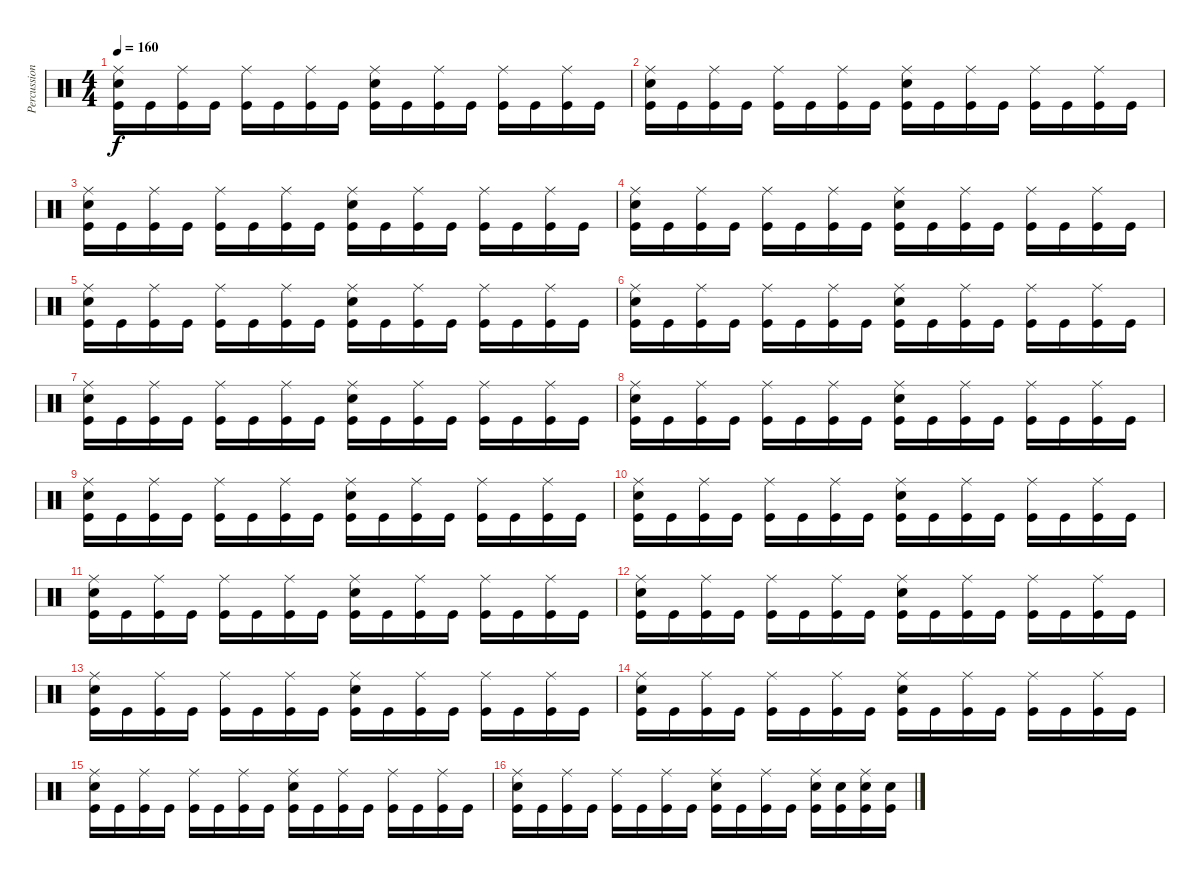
\track ("Percussions" "Percussion") {instrument percussion}
\staff {score}
\articulation defaults
\ts (4 4)
\tempo 160
\clef neutral
\ks c
("Ride (middle)" "Snare (hit) 2" "Kick (hit)").16{dy f} "Kick (hit)".16 ("Ride (middle)" "Kick (hit)").16 "Kick (hit)".16 ("Ride (middle)" "Kick (hit)").16 "Kick (hit)".16 ("Ride (middle)" "Kick (hit)").16 "Kick (hit)".16 ("Ride (middle)" "Snare (hit) 2" "Kick (hit)").16 "Kick (hit)".16 ("Ride (middle)" "Kick (hit)").16 "Kick (hit)".16 ("Ride (middle)" "Kick (hit)").16 "Kick (hit)".16 ("Ride (middle)" "Kick (hit)").16 "Kick (hit)".16 |
("Ride (middle)" "Snare (hit) 2" "Kick (hit)").16 "Kick (hit)".16 ("Ride (middle)" "Kick (hit)").16 "Kick (hit)".16 ("Ride (middle)" "Kick (hit)").16 "Kick (hit)".16 ("Ride (middle)" "Kick (hit)").16 "Kick (hit)".16 ("Ride (middle)" "Snare (hit) 2" "Kick (hit)").16 "Kick (hit)".16 ("Ride (middle)" "Kick (hit)").16 "Kick (hit)".16 ("Ride (middle)" "Kick (hit)").16 "Kick (hit)".16 ("Ride (middle)" "Kick (hit)").16 "Kick (hit)".16 |
("Ride (middle)" "Snare (hit) 2" "Kick (hit)").16 "Kick (hit)".16 ("Ride (middle)" "Kick (hit)").16 "Kick (hit)".16 ("Ride (middle)" "Kick (hit)").16 "Kick (hit)".16 ("Ride (middle)" "Kick (hit)").16 "Kick (hit)".16 ("Ride (middle)" "Snare (hit) 2" "Kick (hit)").16 "Kick (hit)".16 ("Ride (middle)" "Kick (hit)").16 "Kick (hit)".16 ("Ride (middle)" "Kick (hit)").16 "Kick (hit)".16 ("Ride (middle)" "Kick (hit)").16 "Kick (hit)".16 |
("Ride (middle)" "Snare (hit) 2" "Kick (hit)").16 "Kick (hit)".16 ("Ride (middle)" "Kick (hit)").16 "Kick (hit)".16 ("Ride (middle)" "Kick (hit)").16 "Kick (hit)".16 ("Ride (middle)" "Kick (hit)").16 "Kick (hit)".16 ("Ride (middle)" "Snare (hit) 2" "Kick (hit)").16 "Kick (hit)".16 ("Ride (middle)" "Kick (hit)").16 "Kick (hit)".16 ("Ride (middle)" "Kick (hit)").16 "Kick (hit)".16 ("Ride (middle)" "Kick (hit)").16 "Kick (hit)".16 |
("Ride (middle)" "Snare (hit) 2" "Kick (hit)").16 "Kick (hit)".16 ("Ride (middle)" "Kick (hit)").16 "Kick (hit)".16 ("Ride (middle)" "Kick (hit)").16 "Kick (hit)".16 ("Ride (middle)" "Kick (hit)").16 "Kick (hit)".16 ("Ride (middle)" "Snare (hit) 2" "Kick (hit)").16 "Kick (hit)".16 ("Ride (middle)" "Kick (hit)").16 "Kick (hit)".16 ("Ride (middle)" "Kick (hit)").16 "Kick (hit)".16 ("Ride (middle)" "Kick (hit)").16 "Kick (hit)".16 |
("Ride (middle)" "Snare (hit) 2" "Kick (hit)").16 "Kick (hit)".16 ("Ride (middle)" "Kick (hit)").16 "Kick (hit)".16 ("Ride (middle)" "Kick (hit)").16 "Kick (hit)".16 ("Ride (middle)" "Kick (hit)").16 "Kick (hit)".16 ("Ride (middle)" "Snare (hit) 2" "Kick (hit)").16 "Kick (hit)".16 ("Ride (middle)" "Kick (hit)").16 "Kick (hit)".16 ("Ride (middle)" "Kick (hit)").16 "Kick (hit)".16 ("Ride (middle)" "Kick (hit)").16 "Kick (hit)".16 |
("Ride (middle)" "Snare (hit) 2" "Kick (hit)").16 "Kick (hit)".16 ("Ride (middle)" "Kick (hit)").16 "Kick (hit)".16 ("Ride (middle)" "Kick (hit)").16 "Kick (hit)".16 ("Ride (middle)" "Kick (hit)").16 "Kick (hit)".16 ("Ride (middle)" "Snare (hit) 2" "Kick (hit)").16 "Kick (hit)".16 ("Ride (middle)" "Kick (hit)").16 "Kick (hit)".16 ("Ride (middle)" "Kick (hit)").16 "Kick (hit)".16 ("Ride (middle)" "Kick (hit)").16 "Kick (hit)".16 |
("Ride (middle)" "Snare (hit) 2" "Kick (hit)").16 "Kick (hit)".16 ("Ride (middle)" "Kick (hit)").16 "Kick (hit)".16 ("Ride (middle)" "Kick (hit)").16 "Kick (hit)".16 ("Ride (middle)" "Kick (hit)").16 "Kick (hit)".16 ("Ride (middle)" "Snare (hit) 2" "Kick (hit)").16 "Kick (hit)".16 ("Ride (middle)" "Kick (hit)").16 "Kick (hit)".16 ("Ride (middle)" "Kick (hit)").16 "Kick (hit)".16 ("Ride (middle)" "Kick (hit)").16 "Kick (hit)".16 |
("Ride (middle)" "Snare (hit) 2" "Kick (hit)").16 "Kick (hit)".16 ("Ride (middle)" "Kick (hit)").16 "Kick (hit)".16 ("Ride (middle)" "Kick (hit)").16 "Kick (hit)".16 ("Ride (middle)" "Kick (hit)").16 "Kick (hit)".16 ("Ride (middle)" "Snare (hit) 2" "Kick (hit)").16 "Kick (hit)".16 ("Ride (middle)" "Kick (hit)").16 "Kick (hit)".16 ("Ride (middle)" "Kick (hit)").16 "Kick (hit)".16 ("Ride (middle)" "Kick (hit)").16 "Kick (hit)".16 |
("Ride (middle)" "Snare (hit) 2" "Kick (hit)").16 "Kick (hit)".16 ("Ride (middle)" "Kick (hit)").16 "Kick (hit)".16 ("Ride (middle)" "Kick (hit)").16 "Kick (hit)".16 ("Ride (middle)" "Kick (hit)").16 "Kick (hit)".16 ("Ride (middle)" "Snare (hit) 2" "Kick (hit)").16 "Kick (hit)".16 ("Ride (middle)" "Kick (hit)").16 "Kick (hit)".16 ("Ride (middle)" "Kick (hit)").16 "Kick (hit)".16 ("Ride (middle)" "Kick (hit)").16 "Kick (hit)".16 |
("Ride (middle)" "Snare (hit) 2" "Kick (hit)").16 "Kick (hit)".16 ("Ride (middle)" "Kick (hit)").16 "Kick (hit)".16 ("Ride (middle)" "Kick (hit)").16 "Kick (hit)".16 ("Ride (middle)" "Kick (hit)").16 "Kick (hit)".16 ("Ride (middle)" "Snare (hit) 2" "Kick (hit)").16 "Kick (hit)".16 ("Ride (middle)" "Kick (hit)").16 "Kick (hit)".16 ("Ride (middle)" "Kick (hit)").16 "Kick (hit)".16 ("Ride (middle)" "Kick (hit)").16 "Kick (hit)".16 |
("Ride (middle)" "Snare (hit) 2" "Kick (hit)").16 "Kick (hit)".16 ("Ride (middle)" "Kick (hit)").16 "Kick (hit)".16 ("Ride (middle)" "Kick (hit)").16 "Kick (hit)".16 ("Ride (middle)" "Kick (hit)").16 "Kick (hit)".16 ("Ride (middle)" "Snare (hit) 2" "Kick (hit)").16 "Kick (hit)".16 ("Ride (middle)" "Kick (hit)").16 "Kick (hit)".16 ("Ride (middle)" "Kick (hit)").16 "Kick (hit)".16 ("Ride (middle)" "Kick (hit)").16 "Kick (hit)".16 |
("Ride (middle)" "Snare (hit) 2" "Kick (hit)").16 "Kick (hit)".16 ("Ride (middle)" "Kick (hit)").16 "Kick (hit)".16 ("Ride (middle)" "Kick (hit)").16 "Kick (hit)".16 ("Ride (middle)" "Kick (hit)").16 "Kick (hit)".16 ("Ride (middle)" "Snare (hit) 2" "Kick (hit)").16 "Kick (hit)".16 ("Ride (middle)" "Kick (hit)").16 "Kick (hit)".16 ("Ride (middle)" "Kick (hit)").16 "Kick (hit)".16 ("Ride (middle)" "Kick (hit)").16 "Kick (hit)".16 |
("Ride (middle)" "Snare (hit) 2" "Kick (hit)").16 "Kick (hit)".16 ("Ride (middle)" "Kick (hit)").16 "Kick (hit)".16 ("Ride (middle)" "Kick (hit)").16 "Kick (hit)".16 ("Ride (middle)" "Kick (hit)").16 "Kick (hit)".16 ("Ride (middle)" "Snare (hit) 2" "Kick (hit)").16 "Kick (hit)".16 ("Ride (middle)" "Kick (hit)").16 "Kick (hit)".16 ("Ride (middle)" "Kick (hit)").16 "Kick (hit)".16 ("Ride (middle)" "Kick (hit)").16 "Kick (hit)".16 |
("Ride (middle)" "Snare (hit) 2" "Kick (hit)").16 "Kick (hit)".16 ("Ride (middle)" "Kick (hit)").16 "Kick (hit)".16 ("Ride (middle)" "Kick (hit)").16 "Kick (hit)".16 ("Ride (middle)" "Kick (hit)").16 "Kick (hit)".16 ("Ride (middle)" "Snare (hit) 2" "Kick (hit)").16 "Kick (hit)".16 ("Ride (middle)" "Kick (hit)").16 "Kick (hit)".16 ("Ride (middle)" "Kick (hit)").16 "Kick (hit)".16 ("Ride (middle)" "Kick (hit)").16 "Kick (hit)".16 |
("Ride (middle)" "Snare (hit) 2" "Kick (hit)").16 "Kick (hit)".16 ("Ride (middle)" "Kick (hit)").16 "Kick (hit)".16 ("Ride (middle)" "Kick (hit)").16 "Kick (hit)".16 ("Ride (middle)" "Kick (hit)").16 "Kick (hit)".16 ("Ride (middle)" "Snare (hit) 2" "Kick (hit)").16 "Kick (hit)".16 ("Ride (middle)" "Kick (hit)").16 "Kick (hit)".16 ("Ride (middle)" "Snare (hit) 2" "Kick (hit)").16 ("Snare (hit) 2" "Kick (hit)").16 ("Ride (middle)" "Snare (hit) 2" "Kick (hit)").16 ("Snare (hit) 2" "Kick (hit)").16
